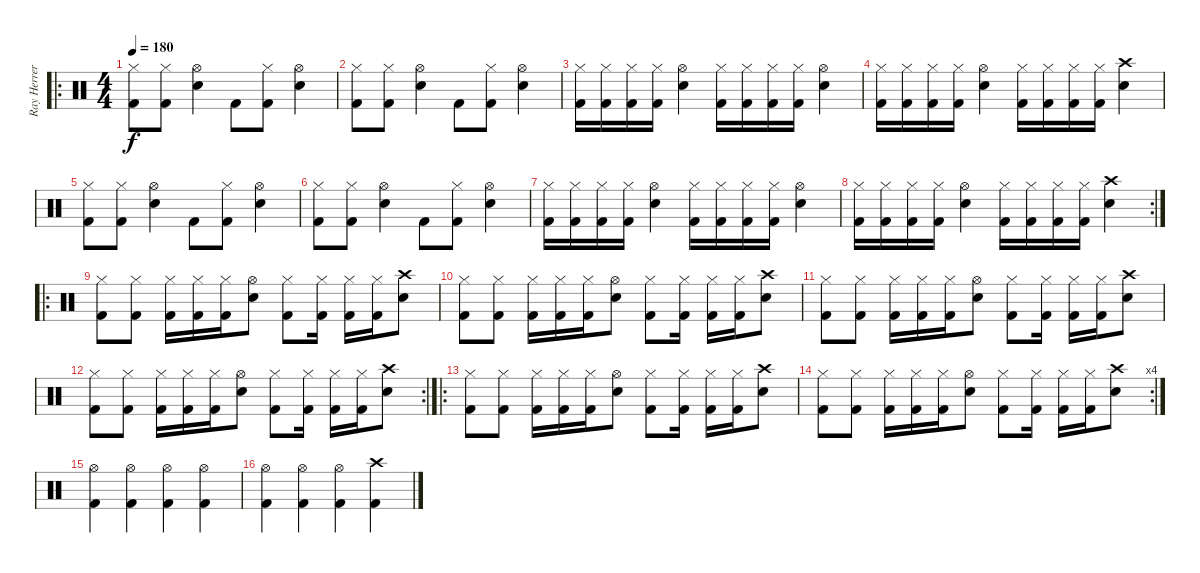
\track ("Ray Herrera" "Ray Herrer") {instrument percussion}
\staff {score}
\articulation defaults
\ro
\ts (4 4)
\tempo 180
\clef neutral
\ks c
("Hi-Hat (closed)" "Kick (hit) 2").8{dy f} ("Hi-Hat (closed)" "Kick (hit) 2").8 ("Hi-Hat (open)" "Electric Snare (hit)").4 "Kick (hit) 2".8 ("Hi-Hat (closed)" "Kick (hit) 2").8 ("Hi-Hat (open)" "Electric Snare (hit)").4 |
("Hi-Hat (closed)" "Kick (hit) 2").8 ("Hi-Hat (closed)" "Kick (hit) 2").8 ("Hi-Hat (open)" "Electric Snare (hit)").4 "Kick (hit) 2".8 ("Hi-Hat (closed)" "Kick (hit) 2").8 ("Hi-Hat (open)" "Electric Snare (hit)").4 |
("Hi-Hat (closed)" "Kick (hit) 2").16 ("Hi-Hat (closed)" "Kick (hit) 2").16 ("Hi-Hat (closed)" "Kick (hit) 2").16 ("Hi-Hat (closed)" "Kick (hit) 2").16 ("Hi-Hat (open)" "Electric Snare (hit)").4 ("Hi-Hat (closed)" "Kick (hit) 2").16 ("Hi-Hat (closed)" "Kick (hit) 2").16 ("Hi-Hat (closed)" "Kick (hit) 2").16 ("Hi-Hat (closed)" "Kick (hit) 2").16 ("Hi-Hat (open)" "Electric Snare (hit)").4 |
("Hi-Hat (closed)" "Kick (hit) 2").16 ("Hi-Hat (closed)" "Kick (hit) 2").16 ("Hi-Hat (closed)" "Kick (hit) 2").16 ("Hi-Hat (closed)" "Kick (hit) 2").16 ("Hi-Hat (open)" "Electric Snare (hit)").4 ("Hi-Hat (closed)" "Kick (hit) 2").16 ("Hi-Hat (closed)" "Kick (hit) 2").16 ("Hi-Hat (closed)" "Kick (hit) 2").16 ("Hi-Hat (closed)" "Kick (hit) 2").16 ("Crash high (hit)" "Electric Snare (hit)").4 |
("Hi-Hat (closed)" "Kick (hit) 2").8 ("Hi-Hat (closed)" "Kick (hit) 2").8 ("Hi-Hat (open)" "Electric Snare (hit)").4 "Kick (hit) 2".8 ("Hi-Hat (closed)" "Kick (hit) 2").8 ("Hi-Hat (open)" "Electric Snare (hit)").4 |
("Hi-Hat (closed)" "Kick (hit) 2").8 ("Hi-Hat (closed)" "Kick (hit) 2").8 ("Hi-Hat (open)" "Electric Snare (hit)").4 "Kick (hit) 2".8 ("Hi-Hat (closed)" "Kick (hit) 2").8 ("Hi-Hat (open)" "Electric Snare (hit)").4 |
("Hi-Hat (closed)" "Kick (hit) 2").16 ("Hi-Hat (closed)" "Kick (hit) 2").16 ("Hi-Hat (closed)" "Kick (hit) 2").16 ("Hi-Hat (closed)" "Kick (hit) 2").16 ("Hi-Hat (open)" "Electric Snare (hit)").4 ("Hi-Hat (closed)" "Kick (hit) 2").16 ("Hi-Hat (closed)" "Kick (hit) 2").16 ("Hi-Hat (closed)" "Kick (hit) 2").16 ("Hi-Hat (closed)" "Kick (hit) 2").16 ("Hi-Hat (open)" "Electric Snare (hit)").4 |
\rc 2
("Hi-Hat (closed)" "Kick (hit) 2").16 ("Hi-Hat (closed)" "Kick (hit) 2").16 ("Hi-Hat (closed)" "Kick (hit) 2").16 ("Hi-Hat (closed)" "Kick (hit) 2").16 ("Hi-Hat (open)" "Electric Snare (hit)").4 ("Hi-Hat (closed)" "Kick (hit) 2").16 ("Hi-Hat (closed)" "Kick (hit) 2").16 ("Hi-Hat (closed)" "Kick (hit) 2").16 ("Hi-Hat (closed)" "Kick (hit) 2").16 ("Crash high (hit)" "Electric Snare (hit)").4 |
\ro
("Hi-Hat (closed)" "Kick (hit) 2").8 ("Hi-Hat (closed)" "Kick (hit) 2").8 ("Hi-Hat (closed)" "Kick (hit) 2").16 ("Hi-Hat (closed)" "Kick (hit) 2").16 ("Hi-Hat (closed)" "Kick (hit) 2").16 ("Hi-Hat (open)" "Electric Snare (hit)").8 ("Hi-Hat (closed)" "Kick (hit) 2").8 ("Hi-Hat (closed)" "Kick (hit) 2").16 ("Hi-Hat (closed)" "Kick (hit) 2").16 ("Hi-Hat (closed)" "Kick (hit) 2").16 ("Crash high (hit)" "Electric Snare (hit)").8 |
("Hi-Hat (closed)" "Kick (hit) 2").8 ("Hi-Hat (closed)" "Kick (hit) 2").8 ("Hi-Hat (closed)" "Kick (hit) 2").16 ("Hi-Hat (closed)" "Kick (hit) 2").16 ("Hi-Hat (closed)" "Kick (hit) 2").16 ("Hi-Hat (open)" "Electric Snare (hit)").8 ("Hi-Hat (closed)" "Kick (hit) 2").8 ("Hi-Hat (closed)" "Kick (hit) 2").16 ("Hi-Hat (closed)" "Kick (hit) 2").16 ("Hi-Hat (closed)" "Kick (hit) 2").16 ("Crash high (hit)" "Electric Snare (hit)").8 |
("Hi-Hat (closed)" "Kick (hit) 2").8 ("Hi-Hat (closed)" "Kick (hit) 2").8 ("Hi-Hat (closed)" "Kick (hit) 2").16 ("Hi-Hat (closed)" "Kick (hit) 2").16 ("Hi-Hat (closed)" "Kick (hit) 2").16 ("Hi-Hat (open)" "Electric Snare (hit)").8 ("Hi-Hat (closed)" "Kick (hit) 2").8 ("Hi-Hat (closed)" "Kick (hit) 2").16 ("Hi-Hat (closed)" "Kick (hit) 2").16 ("Hi-Hat (closed)" "Kick (hit) 2").16 ("Crash high (hit)" "Electric Snare (hit)").8 |
\rc 2
("Hi-Hat (closed)" "Kick (hit) 2").8 ("Hi-Hat (closed)" "Kick (hit) 2").8 ("Hi-Hat (closed)" "Kick (hit) 2").16 ("Hi-Hat (closed)" "Kick (hit) 2").16 ("Hi-Hat (closed)" "Kick (hit) 2").16 ("Hi-Hat (open)" "Electric Snare (hit)").8 ("Hi-Hat (closed)" "Kick (hit) 2").8 ("Hi-Hat (closed)" "Kick (hit) 2").16 ("Hi-Hat (closed)" "Kick (hit) 2").16 ("Hi-Hat (closed)" "Kick (hit) 2").16 ("Crash high (hit)" "Electric Snare (hit)").8 |
\ro
("Hi-Hat (closed)" "Kick (hit) 2").8 ("Hi-Hat (closed)" "Kick (hit) 2").8 ("Hi-Hat (closed)" "Kick (hit) 2").16 ("Hi-Hat (closed)" "Kick (hit) 2").16 ("Hi-Hat (closed)" "Kick (hit) 2").16 ("Hi-Hat (open)" "Electric Snare (hit)").8 ("Hi-Hat (closed)" "Kick (hit) 2").8 ("Hi-Hat (closed)" "Kick (hit) 2").16 ("Hi-Hat (closed)" "Kick (hit) 2").16 ("Hi-Hat (closed)" "Kick (hit) 2").16 ("Crash high (hit)" "Electric Snare (hit)").8 |
\rc 4
("Hi-Hat (closed)" "Kick (hit) 2").8 ("Hi-Hat (closed)" "Kick (hit) 2").8 ("Hi-Hat (closed)" "Kick (hit) 2").16 ("Hi-Hat (closed)" "Kick (hit) 2").16 ("Hi-Hat (closed)" "Kick (hit) 2").16 ("Hi-Hat (open)" "Electric Snare (hit)").8 ("Hi-Hat (closed)" "Kick (hit) 2").8 ("Hi-Hat (closed)" "Kick (hit) 2").16 ("Hi-Hat (closed)" "Kick (hit) 2").16 ("Hi-Hat (closed)" "Kick (hit) 2").16 ("Crash high (hit)" "Electric Snare (hit)").8 |
("Hi-Hat (open)" "Kick (hit) 2").4 ("Hi-Hat (open)" "Kick (hit) 2").4 ("Hi-Hat (open)" "Kick (hit) 2").4 ("Hi-Hat (open)" "Kick (hit) 2").4 |
("Hi-Hat (open)" "Kick (hit) 2").4 ("Hi-Hat (open)" "Kick (hit) 2").4 ("Hi-Hat (open)" "Kick (hit) 2").4 ("Crash high (hit)" "Kick (hit) 2").4
